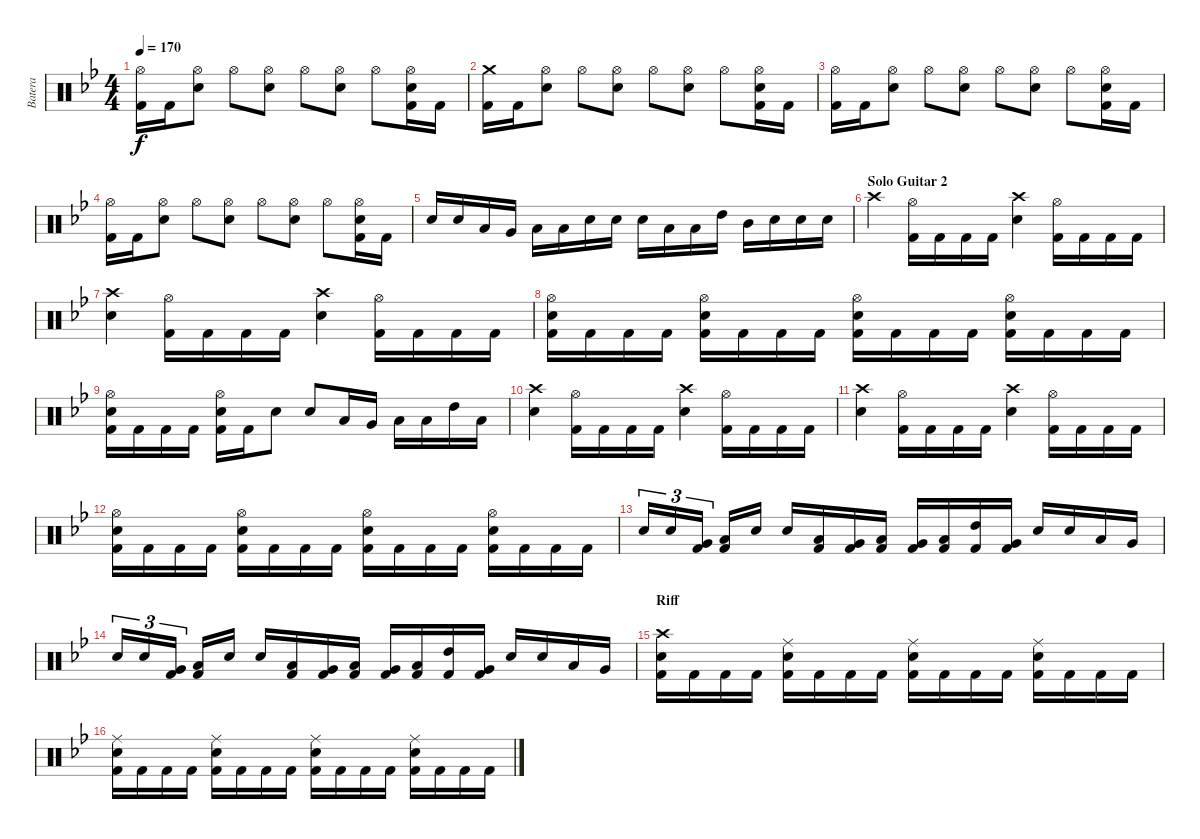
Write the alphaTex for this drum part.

\track ("Batera" "Batera") {instrument percussion}
\staff {score}
\articulation defaults
\ts (4 4)
\tempo 170
\clef neutral
\ks bb
("Hi-Hat (open)" "Kick (hit) 2").16{dy f} "Kick (hit) 2".16 ("Hi-Hat (open)" "Electric Snare (hit)").8 "Hi-Hat (open)".8 ("Hi-Hat (open)" "Electric Snare (hit)").8 "Hi-Hat (open)".8 ("Hi-Hat (open)" "Electric Snare (hit)").8 "Hi-Hat (open)".8 ("Hi-Hat (open)" "Electric Snare (hit)" "Kick (hit) 2").16 "Kick (hit) 2".16 |
("Crash medium (hit)" "Kick (hit) 2").16 "Kick (hit) 2".16 ("Hi-Hat (open)" "Electric Snare (hit)").8 "Hi-Hat (open)".8 ("Hi-Hat (open)" "Electric Snare (hit)").8 "Hi-Hat (open)".8 ("Hi-Hat (open)" "Electric Snare (hit)").8 "Hi-Hat (open)".8 ("Hi-Hat (open)" "Electric Snare (hit)" "Kick (hit) 2").16 "Kick (hit) 2".16 |
("Hi-Hat (open)" "Kick (hit) 2").16 "Kick (hit) 2".16 ("Hi-Hat (open)" "Electric Snare (hit)").8 "Hi-Hat (open)".8 ("Hi-Hat (open)" "Electric Snare (hit)").8 "Hi-Hat (open)".8 ("Hi-Hat (open)" "Electric Snare (hit)").8 "Hi-Hat (open)".8 ("Hi-Hat (open)" "Electric Snare (hit)" "Kick (hit) 2").16 "Kick (hit) 2".16 |
("Hi-Hat (open)" "Kick (hit) 2").16 "Kick (hit) 2".16 ("Hi-Hat (open)" "Electric Snare (hit)").8 "Hi-Hat (open)".8 ("Hi-Hat (open)" "Electric Snare (hit)").8 "Hi-Hat (open)".8 ("Hi-Hat (open)" "Electric Snare (hit)").8 "Hi-Hat (open)".8 ("Hi-Hat (open)" "Electric Snare (hit)" "Kick (hit) 2").16 "Kick (hit) 2".16 |
"Electric Snare (hit)".16 "Electric Snare (hit)".16 "Low Floor Tom (hit)".16 "Very Low Tom (hit)".16 "Low Floor Tom (hit)".16 "Low Tom (hit)".16 "Electric Snare (hit)".16 "Electric Snare (hit)".16 "Electric Snare (hit)".16 "Low Floor Tom (hit)".16 "Low Tom (hit)".16 "High Tom (hit)".16 "Mid Tom (hit)".16 "Electric Snare (hit)".16 "Electric Snare (hit)".16 "Electric Snare (hit)".16 |
\section ("" "Solo Guitar 2")
"Crash high (hit)".4 ("Hi-Hat (open)" "Kick (hit) 2").16 "Kick (hit) 2".16 "Kick (hit) 2".16 "Kick (hit) 2".16 ("Crash high (hit)" "Electric Snare (hit)").4 ("Hi-Hat (open)" "Kick (hit) 2").16 "Kick (hit) 2".16 "Kick (hit) 2".16 "Kick (hit) 2".16 |
("Crash high (hit)" "Electric Snare (hit)").4 ("Hi-Hat (open)" "Kick (hit) 2").16 "Kick (hit) 2".16 "Kick (hit) 2".16 "Kick (hit) 2".16 ("Crash high (hit)" "Electric Snare (hit)").4 ("Hi-Hat (open)" "Kick (hit) 2").16 "Kick (hit) 2".16 "Kick (hit) 2".16 "Kick (hit) 2".16 |
("Hi-Hat (open)" "Electric Snare (hit)" "Kick (hit) 2").16 "Kick (hit) 2".16 "Kick (hit) 2".16 "Kick (hit) 2".16 ("Hi-Hat (open)" "Electric Snare (hit)" "Kick (hit) 2").16 "Kick (hit) 2".16 "Kick (hit) 2".16 "Kick (hit) 2".16 ("Hi-Hat (open)" "Electric Snare (hit)" "Kick (hit) 2").16 "Kick (hit) 2".16 "Kick (hit) 2".16 "Kick (hit) 2".16 ("Hi-Hat (open)" "Electric Snare (hit)" "Kick (hit) 2").16 "Kick (hit) 2".16 "Kick (hit) 2".16 "Kick (hit) 2".16 |
("Hi-Hat (open)" "Electric Snare (hit)" "Kick (hit) 2").16 "Kick (hit) 2".16 "Kick (hit) 2".16 "Kick (hit) 2".16 ("Hi-Hat (open)" "Electric Snare (hit)" "Kick (hit) 2").16 "Kick (hit) 2".16 "Electric Snare (hit)".8 "Electric Snare (hit)".8 "Low Floor Tom (hit)".16 "Very Low Tom (hit)".16 "Low Floor Tom (hit)".16 "Low Tom (hit)".16 "High Tom (hit)".16 "Low Floor Tom (hit)".16 |
("Crash high (hit)" "Electric Snare (hit)").4 ("Hi-Hat (open)" "Kick (hit) 2").16 "Kick (hit) 2".16 "Kick (hit) 2".16 "Kick (hit) 2".16 ("Crash high (hit)" "Electric Snare (hit)").4 ("Hi-Hat (open)" "Kick (hit) 2").16 "Kick (hit) 2".16 "Kick (hit) 2".16 "Kick (hit) 2".16 |
("Crash high (hit)" "Electric Snare (hit)").4 ("Hi-Hat (open)" "Kick (hit) 2").16 "Kick (hit) 2".16 "Kick (hit) 2".16 "Kick (hit) 2".16 ("Crash high (hit)" "Electric Snare (hit)").4 ("Hi-Hat (open)" "Kick (hit) 2").16 "Kick (hit) 2".16 "Kick (hit) 2".16 "Kick (hit) 2".16 |
("Hi-Hat (open)" "Electric Snare (hit)" "Kick (hit) 2").16 "Kick (hit) 2".16 "Kick (hit) 2".16 "Kick (hit) 2".16 ("Hi-Hat (open)" "Electric Snare (hit)" "Kick (hit) 2").16 "Kick (hit) 2".16 "Kick (hit) 2".16 "Kick (hit) 2".16 ("Hi-Hat (open)" "Electric Snare (hit)" "Kick (hit) 2").16 "Kick (hit) 2".16 "Kick (hit) 2".16 "Kick (hit) 2".16 ("Hi-Hat (open)" "Electric Snare (hit)" "Kick (hit) 2").16 "Kick (hit) 2".16 "Kick (hit) 2".16 "Kick (hit) 2".16 |
"Electric Snare (hit)".16{tu (3 2)} "Electric Snare (hit)".16{tu (3 2)} ("Very Low Tom (hit)" "Kick (hit) 2").16{tu (3 2)} ("Low Floor Tom (hit)" "Kick (hit) 2").16 "Electric Snare (hit)".16 "Electric Snare (hit)".16 ("Low Floor Tom (hit)" "Kick (hit) 2").16 ("Very Low Tom (hit)" "Kick (hit) 2").16 ("Low Floor Tom (hit)" "Kick (hit) 2").16 ("Very Low Tom (hit)" "Kick (hit) 2").16 ("Low Tom (hit)" "Kick (hit) 2").16 ("High Tom (hit)" "Kick (hit) 2").16 ("Very Low Tom (hit)" "Kick (hit) 2").16 "Electric Snare (hit)".16 "Electric Snare (hit)".16 "Low Floor Tom (hit)".16 "Very Low Tom (hit)".16 |
"Electric Snare (hit)".16{tu (3 2)} "Electric Snare (hit)".16{tu (3 2)} ("Very Low Tom (hit)" "Kick (hit) 2").16{tu (3 2)} ("Low Floor Tom (hit)" "Kick (hit) 2").16 "Electric Snare (hit)".16 "Electric Snare (hit)".16 ("Low Floor Tom (hit)" "Kick (hit) 2").16 ("Very Low Tom (hit)" "Kick (hit) 2").16 ("Low Floor Tom (hit)" "Kick (hit) 2").16 ("Very Low Tom (hit)" "Kick (hit) 2").16 ("Low Tom (hit)" "Kick (hit) 2").16 ("High Tom (hit)" "Kick (hit) 2").16 ("Very Low Tom (hit)" "Kick (hit) 2").16 "Electric Snare (hit)".16 "Electric Snare (hit)".16 "Low Floor Tom (hit)".16 "Very Low Tom (hit)".16 |
\section ("" "Riff")
("Crash high (hit)" "Electric Snare (hit)" "Kick (hit) 2").16 "Kick (hit) 2".16 "Kick (hit) 2".16 "Kick (hit) 2".16 ("Ride (middle)" "Electric Snare (hit)" "Kick (hit) 2").16 "Kick (hit) 2".16 "Kick (hit) 2".16 "Kick (hit) 2".16 ("Ride (middle)" "Electric Snare (hit)" "Kick (hit) 2").16 "Kick (hit) 2".16 "Kick (hit) 2".16 "Kick (hit) 2".16 ("Ride (middle)" "Electric Snare (hit)" "Kick (hit) 2").16 "Kick (hit) 2".16 "Kick (hit) 2".16 "Kick (hit) 2".16 |
("Ride (middle)" "Electric Snare (hit)" "Kick (hit) 2").16 "Kick (hit) 2".16 "Kick (hit) 2".16 "Kick (hit) 2".16 ("Ride (middle)" "Electric Snare (hit)" "Kick (hit) 2").16 "Kick (hit) 2".16 "Kick (hit) 2".16 "Kick (hit) 2".16 ("Ride (middle)" "Electric Snare (hit)" "Kick (hit) 2").16 "Kick (hit) 2".16 "Kick (hit) 2".16 "Kick (hit) 2".16 ("Ride (middle)" "Electric Snare (hit)" "Kick (hit) 2").16 "Kick (hit) 2".16 "Kick (hit) 2".16 "Kick (hit) 2".16
